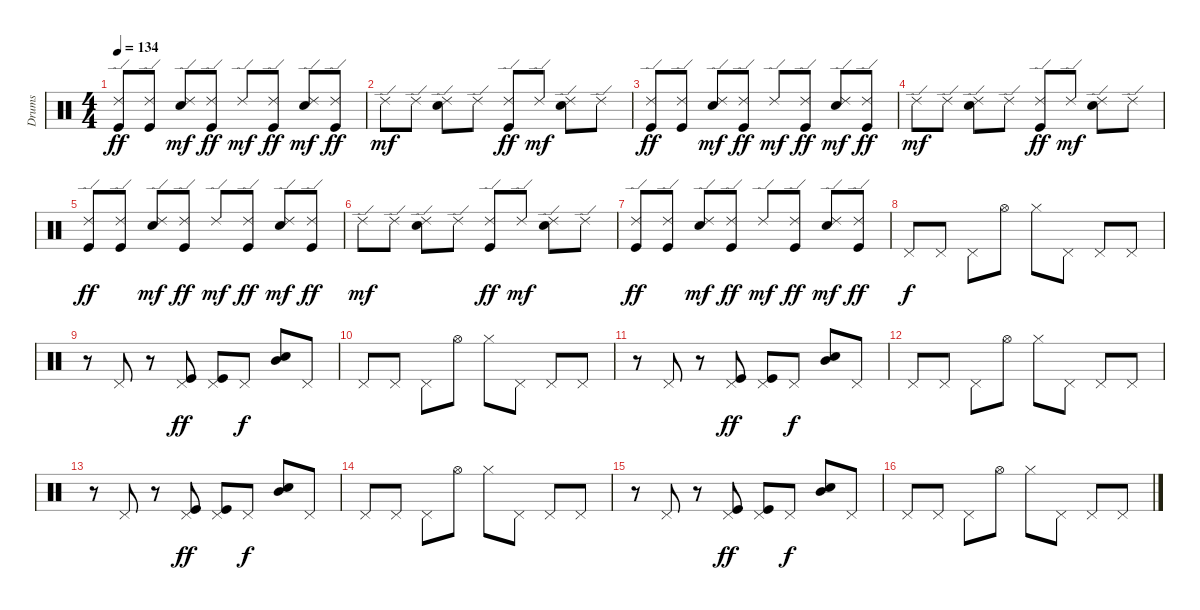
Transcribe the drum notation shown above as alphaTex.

\track ("Drums" "Drums") {instrument percussion}
\staff {score}
\articulation defaults
\ts (4 4)
\tempo 134
\clef neutral
\ks c
("Ride (edge) 2" "Kick (hit)").8{dy ff} ("Ride (edge) 2" "Kick (hit)").8 ("Ride (edge) 2" "Snare (hit) 2").8{dy mf} ("Ride (edge) 2" "Kick (hit)").8{dy ff} "Ride (edge) 2".8{dy mf} ("Ride (edge) 2" "Kick (hit)").8{dy ff} ("Ride (edge) 2" "Snare (hit) 2").8{dy mf} ("Ride (edge) 2" "Kick (hit)").8{dy ff} |
"Ride (edge) 2".8{dy mf} "Ride (edge) 2".8 ("Ride (edge) 2" "Snare (hit) 2").8 "Ride (edge) 2".8 ("Ride (edge) 2" "Kick (hit)").8{dy ff} "Ride (edge) 2".8{dy mf} ("Ride (edge) 2" "Snare (hit) 2").8 "Ride (edge) 2".8 |
("Ride (edge) 2" "Kick (hit)").8{dy ff} ("Ride (edge) 2" "Kick (hit)").8 ("Ride (edge) 2" "Snare (hit) 2").8{dy mf} ("Ride (edge) 2" "Kick (hit)").8{dy ff} "Ride (edge) 2".8{dy mf} ("Ride (edge) 2" "Kick (hit)").8{dy ff} ("Ride (edge) 2" "Snare (hit) 2").8{dy mf} ("Ride (edge) 2" "Kick (hit)").8{dy ff} |
"Ride (edge) 2".8{dy mf} "Ride (edge) 2".8 ("Ride (edge) 2" "Snare (hit) 2").8 "Ride (edge) 2".8 ("Ride (edge) 2" "Kick (hit)").8{dy ff} "Ride (edge) 2".8{dy mf} ("Ride (edge) 2" "Snare (hit) 2").8 "Ride (edge) 2".8 |
("Ride (edge) 2" "Kick (hit)").8{dy ff} ("Ride (edge) 2" "Kick (hit)").8 ("Ride (edge) 2" "Snare (hit) 2").8{dy mf} ("Ride (edge) 2" "Kick (hit)").8{dy ff} "Ride (edge) 2".8{dy mf} ("Ride (edge) 2" "Kick (hit)").8{dy ff} ("Ride (edge) 2" "Snare (hit) 2").8{dy mf} ("Ride (edge) 2" "Kick (hit)").8{dy ff} |
"Ride (edge) 2".8{dy mf} "Ride (edge) 2".8 ("Ride (edge) 2" "Snare (hit) 2").8 "Ride (edge) 2".8 ("Ride (edge) 2" "Kick (hit)").8{dy ff} "Ride (edge) 2".8{dy mf} ("Ride (edge) 2" "Snare (hit) 2").8 "Ride (edge) 2".8 |
("Ride (edge) 2" "Kick (hit)").8{dy ff} ("Ride (edge) 2" "Kick (hit)").8 ("Ride (edge) 2" "Snare (hit) 2").8{dy mf} ("Ride (edge) 2" "Kick (hit)").8{dy ff} "Ride (edge) 2".8{dy mf} ("Ride (edge) 2" "Kick (hit)").8{dy ff} ("Ride (edge) 2" "Snare (hit) 2").8{dy mf} ("Ride (edge) 2" "Kick (hit)").8{dy ff} |
"Pedal Hi-Hat (hit)".8{dy f} "Pedal Hi-Hat (hit)".8 "Pedal Hi-Hat (hit)".8 "Hi-Hat (open)".8 "Hi-Hat (closed)".8 "Pedal Hi-Hat (hit)".8 "Pedal Hi-Hat (hit)".8 "Pedal Hi-Hat (hit)".8 |
r.8 "Pedal Hi-Hat (hit)".8 r.8 ("Pedal Hi-Hat (hit)" "Kick (hit)").8{dy ff} ("Pedal Hi-Hat (hit)" "Kick (hit)").8 "Pedal Hi-Hat (hit)".8{dy f} ("Mid Tom (hit)" "Snare (hit) 2").8 "Pedal Hi-Hat (hit)".8 |
"Pedal Hi-Hat (hit)".8 "Pedal Hi-Hat (hit)".8 "Pedal Hi-Hat (hit)".8 "Hi-Hat (open)".8 "Hi-Hat (closed)".8 "Pedal Hi-Hat (hit)".8 "Pedal Hi-Hat (hit)".8 "Pedal Hi-Hat (hit)".8 |
r.8 "Pedal Hi-Hat (hit)".8 r.8 ("Pedal Hi-Hat (hit)" "Kick (hit)").8{dy ff} ("Pedal Hi-Hat (hit)" "Kick (hit)").8 "Pedal Hi-Hat (hit)".8{dy f} ("Mid Tom (hit)" "Snare (hit) 2").8 "Pedal Hi-Hat (hit)".8 |
"Pedal Hi-Hat (hit)".8 "Pedal Hi-Hat (hit)".8 "Pedal Hi-Hat (hit)".8 "Hi-Hat (open)".8 "Hi-Hat (closed)".8 "Pedal Hi-Hat (hit)".8 "Pedal Hi-Hat (hit)".8 "Pedal Hi-Hat (hit)".8 |
r.8 "Pedal Hi-Hat (hit)".8 r.8 ("Pedal Hi-Hat (hit)" "Kick (hit)").8{dy ff} ("Pedal Hi-Hat (hit)" "Kick (hit)").8 "Pedal Hi-Hat (hit)".8{dy f} ("Mid Tom (hit)" "Snare (hit) 2").8 "Pedal Hi-Hat (hit)".8 |
"Pedal Hi-Hat (hit)".8 "Pedal Hi-Hat (hit)".8 "Pedal Hi-Hat (hit)".8 "Hi-Hat (open)".8 "Hi-Hat (closed)".8 "Pedal Hi-Hat (hit)".8 "Pedal Hi-Hat (hit)".8 "Pedal Hi-Hat (hit)".8 |
r.8 "Pedal Hi-Hat (hit)".8 r.8 ("Pedal Hi-Hat (hit)" "Kick (hit)").8{dy ff} ("Pedal Hi-Hat (hit)" "Kick (hit)").8 "Pedal Hi-Hat (hit)".8{dy f} ("Mid Tom (hit)" "Snare (hit) 2").8 "Pedal Hi-Hat (hit)".8 |
"Pedal Hi-Hat (hit)".8 "Pedal Hi-Hat (hit)".8 "Pedal Hi-Hat (hit)".8 "Hi-Hat (open)".8 "Hi-Hat (closed)".8 "Pedal Hi-Hat (hit)".8 "Pedal Hi-Hat (hit)".8 "Pedal Hi-Hat (hit)".8
